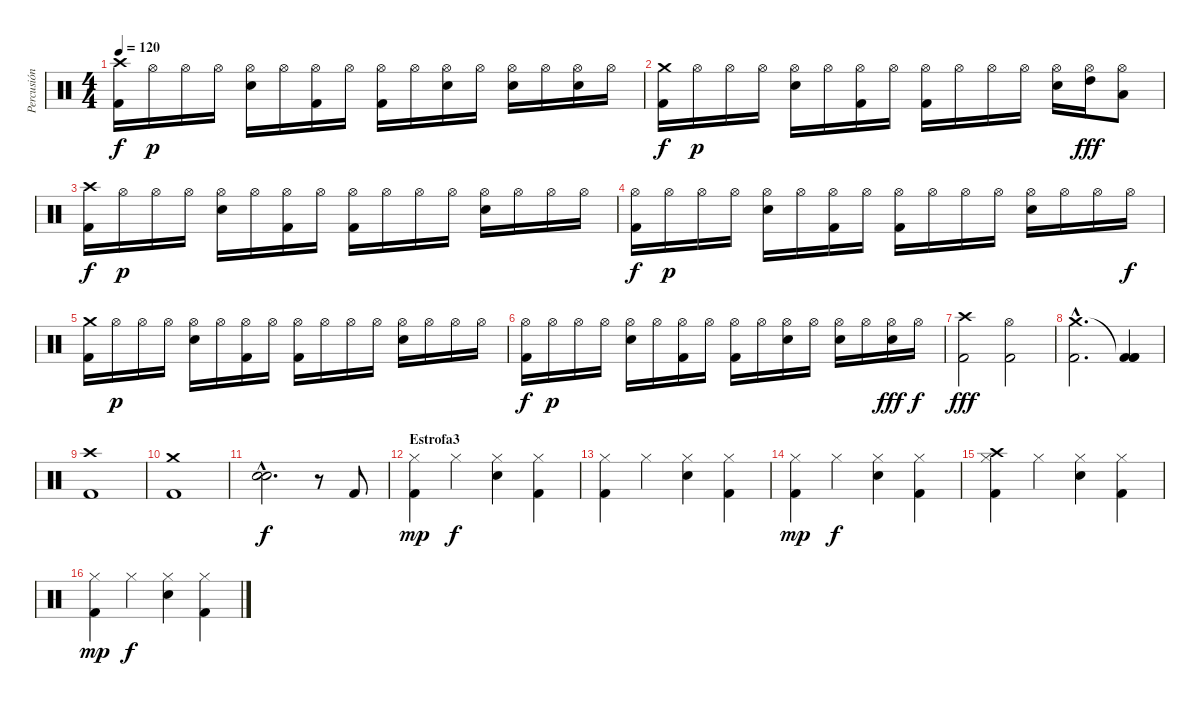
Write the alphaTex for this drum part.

\track ("Percusión" "Percusión") {instrument percussion}
\staff {score}
\articulation defaults
\ts (4 4)
\tempo 120
\clef neutral
\ks c
("Crash high (hit)" "Kick (hit) 2").16{dy f} "Hi-Hat (open)".16{dy p} "Hi-Hat (open)".16 "Hi-Hat (open)".16 ("Hi-Hat (open)" "Snare (hit) 2").16 "Hi-Hat (open)".16 ("Hi-Hat (open)" "Kick (hit) 2").16 "Hi-Hat (open)".16 ("Hi-Hat (open)" "Kick (hit) 2").16 "Hi-Hat (open)".16 ("Hi-Hat (open)" "Snare (hit) 2").16 "Hi-Hat (open)".16 ("Hi-Hat (open)" "Snare (hit) 2").16 "Hi-Hat (open)".16 ("Hi-Hat (open)" "Snare (hit) 2").16 "Hi-Hat (open)".16 |
("Crash medium (hit)" "Kick (hit) 2").16{dy f} "Hi-Hat (open)".16{dy p} "Hi-Hat (open)".16 "Hi-Hat (open)".16 ("Hi-Hat (open)" "Snare (hit) 2").16 "Hi-Hat (open)".16 ("Hi-Hat (open)" "Kick (hit) 2").16 "Hi-Hat (open)".16 ("Hi-Hat (open)" "Kick (hit) 2").16 "Hi-Hat (open)".16 "Hi-Hat (open)".16 "Hi-Hat (open)".16 ("Hi-Hat (open)" "Snare (hit) 2").16 ("Hi-Hat (open)" "High Tom (hit)").16{dy fff} ("Hi-Hat (open)" "Low Tom (hit)").8 |
("Crash high (hit)" "Kick (hit) 2").16{dy f} "Hi-Hat (open)".16{dy p} "Hi-Hat (open)".16 "Hi-Hat (open)".16 ("Hi-Hat (open)" "Snare (hit) 2").16 "Hi-Hat (open)".16 ("Hi-Hat (open)" "Kick (hit) 2").16 "Hi-Hat (open)".16 ("Hi-Hat (open)" "Kick (hit) 2").16 "Hi-Hat (open)".16 "Hi-Hat (open)".16 "Hi-Hat (open)".16 ("Hi-Hat (open)" "Snare (hit) 2").16 "Hi-Hat (open)".16 "Hi-Hat (open)".16 "Hi-Hat (open)".16 |
("Hi-Hat (open)" "Kick (hit) 2").16{dy f} "Hi-Hat (open)".16{dy p} "Hi-Hat (open)".16 "Hi-Hat (open)".16 ("Hi-Hat (open)" "Snare (hit) 2").16 "Hi-Hat (open)".16 ("Hi-Hat (open)" "Kick (hit) 2").16 "Hi-Hat (open)".16 ("Hi-Hat (open)" "Kick (hit) 2").16 "Hi-Hat (open)".16 "Hi-Hat (open)".16 "Hi-Hat (open)".16 ("Hi-Hat (open)" "Snare (hit) 2").16 "Hi-Hat (open)".16 "Hi-Hat (open)".16 "Hi-Hat (open)".16{dy f} |
("Crash medium (hit)" "Kick (hit) 2").16 "Hi-Hat (open)".16{dy p} "Hi-Hat (open)".16 "Hi-Hat (open)".16 ("Hi-Hat (open)" "Snare (hit) 2").16 "Hi-Hat (open)".16 ("Hi-Hat (open)" "Kick (hit) 2").16 "Hi-Hat (open)".16 ("Hi-Hat (open)" "Kick (hit) 2").16 "Hi-Hat (open)".16 "Hi-Hat (open)".16 "Hi-Hat (open)".16 ("Hi-Hat (open)" "Snare (hit) 2").16 "Hi-Hat (open)".16 "Hi-Hat (open)".16 "Hi-Hat (open)".16 |
("Hi-Hat (open)" "Kick (hit) 2").16{dy f} "Hi-Hat (open)".16{dy p} "Hi-Hat (open)".16 "Hi-Hat (open)".16 ("Hi-Hat (open)" "Snare (hit) 2").16 "Hi-Hat (open)".16 ("Hi-Hat (open)" "Kick (hit) 2").16 "Hi-Hat (open)".16 ("Hi-Hat (open)" "Kick (hit) 2").16 "Hi-Hat (open)".16 ("Hi-Hat (open)" "Snare (hit) 2").16 "Hi-Hat (open)".16 ("Hi-Hat (open)" "Snare (hit) 2").16 "Hi-Hat (open)".16 ("Hi-Hat (open)" "Snare (hit) 2").16{dy fff} "Hi-Hat (open)".16{dy f} |
("Crash high (hit)" "Kick (hit) 2").2{dy fff} ("Hi-Hat (open)" "Kick (hit) 2").2 |
("Crash medium (hit)"{hac} "Kick (hit) 2"{hac}).2{d} ("Kick (hit) 2"{t} "Kick (hit) 2" "Kick (hit) 2").4{bd 480} |
("Crash high (hit)" "Kick (hit) 2").1 |
("Crash medium (hit)" "Kick (hit) 2").1 |
("Snare (hit) 2"{hac} "Snare (hit) 2"{hac}).2{d bd 480 dy f} r.8 "Kick (hit) 2".8 |
\section ("" "Estrofa3")
("Hi-Hat (closed)" "Kick (hit) 2").4{dy mp} "Hi-Hat (closed)".4{dy f} ("Hi-Hat (closed)" "Snare (hit) 2").4 ("Hi-Hat (closed)" "Kick (hit) 2").4 |
("Hi-Hat (closed)" "Kick (hit) 2").4 "Hi-Hat (closed)".4 ("Hi-Hat (closed)" "Snare (hit) 2").4 ("Hi-Hat (closed)" "Kick (hit) 2").4 |
("Hi-Hat (closed)" "Kick (hit) 2").4{dy mp} "Hi-Hat (closed)".4{dy f} ("Hi-Hat (closed)" "Snare (hit) 2").4 ("Hi-Hat (closed)" "Kick (hit) 2").4 |
("Hi-Hat (closed)" "Kick (hit) 2" "Crash high (hit)").4 "Hi-Hat (closed)".4 ("Hi-Hat (closed)" "Snare (hit) 2").4 ("Hi-Hat (closed)" "Kick (hit) 2").4 |
("Hi-Hat (closed)" "Kick (hit) 2").4{dy mp} "Hi-Hat (closed)".4{dy f} ("Hi-Hat (closed)" "Snare (hit) 2").4 ("Hi-Hat (closed)" "Kick (hit) 2").4
